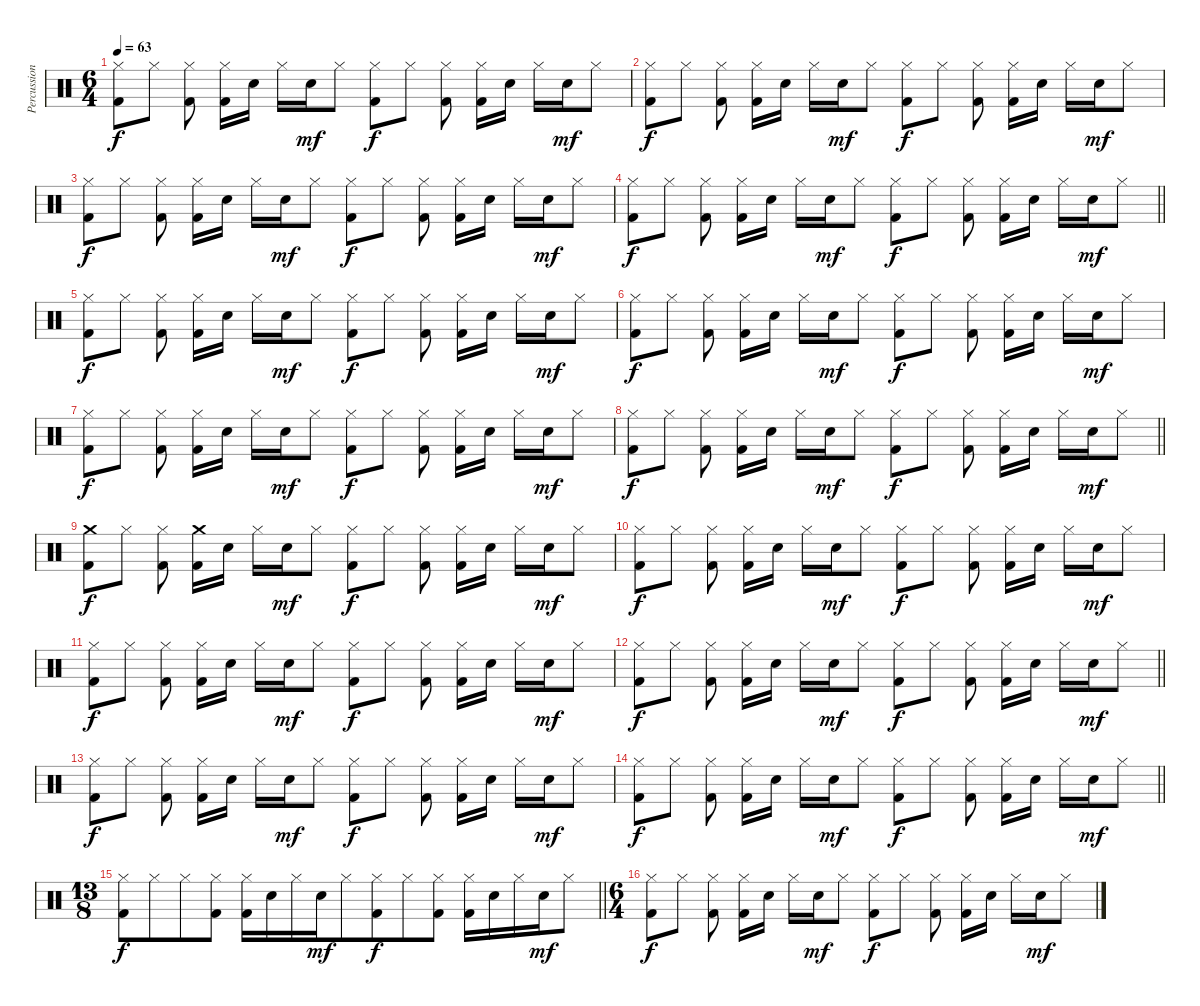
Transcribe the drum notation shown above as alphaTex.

\track ("Percussion" "Percussion") {instrument percussion}
\staff {score}
\articulation defaults
\ts (6 4)
\tempo 63
\clef neutral
\ks c
("Hi-Hat (closed)" "Kick (hit) 2").8{dy f} "Hi-Hat (closed)".8 ("Hi-Hat (closed)" "Kick (hit) 2").8{beam split} ("Hi-Hat (closed)" "Kick (hit) 2").16 "Electric Snare (hit)".16 "Hi-Hat (closed)".16 "Electric Snare (hit)".16{dy mf} "Hi-Hat (closed)".8 ("Hi-Hat (closed)" "Kick (hit) 2").8{dy f} "Hi-Hat (closed)".8 ("Hi-Hat (closed)" "Kick (hit) 2").8{beam split} ("Hi-Hat (closed)" "Kick (hit) 2").16 "Electric Snare (hit)".16 "Hi-Hat (closed)".16 "Electric Snare (hit)".16{dy mf} "Hi-Hat (closed)".8 |
("Hi-Hat (closed)" "Kick (hit) 2").8{dy f} "Hi-Hat (closed)".8 ("Hi-Hat (closed)" "Kick (hit) 2").8{beam split} ("Hi-Hat (closed)" "Kick (hit) 2").16 "Electric Snare (hit)".16 "Hi-Hat (closed)".16 "Electric Snare (hit)".16{dy mf} "Hi-Hat (closed)".8 ("Hi-Hat (closed)" "Kick (hit) 2").8{dy f} "Hi-Hat (closed)".8 ("Hi-Hat (closed)" "Kick (hit) 2").8{beam split} ("Hi-Hat (closed)" "Kick (hit) 2").16 "Electric Snare (hit)".16 "Hi-Hat (closed)".16 "Electric Snare (hit)".16{dy mf} "Hi-Hat (closed)".8 |
("Hi-Hat (closed)" "Kick (hit) 2").8{dy f} "Hi-Hat (closed)".8 ("Hi-Hat (closed)" "Kick (hit) 2").8{beam split} ("Hi-Hat (closed)" "Kick (hit) 2").16 "Electric Snare (hit)".16 "Hi-Hat (closed)".16 "Electric Snare (hit)".16{dy mf} "Hi-Hat (closed)".8 ("Hi-Hat (closed)" "Kick (hit) 2").8{dy f} "Hi-Hat (closed)".8 ("Hi-Hat (closed)" "Kick (hit) 2").8{beam split} ("Hi-Hat (closed)" "Kick (hit) 2").16 "Electric Snare (hit)".16 "Hi-Hat (closed)".16 "Electric Snare (hit)".16{dy mf} "Hi-Hat (closed)".8 |
\barLineRight lightlight
("Hi-Hat (closed)" "Kick (hit) 2").8{dy f} "Hi-Hat (closed)".8 ("Hi-Hat (closed)" "Kick (hit) 2").8{beam split} ("Hi-Hat (closed)" "Kick (hit) 2").16 "Electric Snare (hit)".16 "Hi-Hat (closed)".16 "Electric Snare (hit)".16{dy mf} "Hi-Hat (closed)".8 ("Hi-Hat (closed)" "Kick (hit) 2").8{dy f} "Hi-Hat (closed)".8 ("Hi-Hat (closed)" "Kick (hit) 2").8{beam split} ("Hi-Hat (closed)" "Kick (hit) 2").16 "Electric Snare (hit)".16 "Hi-Hat (closed)".16 "Electric Snare (hit)".16{dy mf} "Hi-Hat (closed)".8 |
("Hi-Hat (closed)" "Kick (hit) 2").8{dy f} "Hi-Hat (closed)".8 ("Hi-Hat (closed)" "Kick (hit) 2").8{beam split} ("Hi-Hat (closed)" "Kick (hit) 2").16 "Electric Snare (hit)".16 "Hi-Hat (closed)".16 "Electric Snare (hit)".16{dy mf} "Hi-Hat (closed)".8 ("Hi-Hat (closed)" "Kick (hit) 2").8{dy f} "Hi-Hat (closed)".8 ("Hi-Hat (closed)" "Kick (hit) 2").8{beam split} ("Hi-Hat (closed)" "Kick (hit) 2").16 "Electric Snare (hit)".16 "Hi-Hat (closed)".16 "Electric Snare (hit)".16{dy mf} "Hi-Hat (closed)".8 |
("Hi-Hat (closed)" "Kick (hit) 2").8{dy f} "Hi-Hat (closed)".8 ("Hi-Hat (closed)" "Kick (hit) 2").8{beam split} ("Hi-Hat (closed)" "Kick (hit) 2").16 "Electric Snare (hit)".16 "Hi-Hat (closed)".16 "Electric Snare (hit)".16{dy mf} "Hi-Hat (closed)".8 ("Hi-Hat (closed)" "Kick (hit) 2").8{dy f} "Hi-Hat (closed)".8 ("Hi-Hat (closed)" "Kick (hit) 2").8{beam split} ("Hi-Hat (closed)" "Kick (hit) 2").16 "Electric Snare (hit)".16 "Hi-Hat (closed)".16 "Electric Snare (hit)".16{dy mf} "Hi-Hat (closed)".8 |
("Hi-Hat (closed)" "Kick (hit) 2").8{dy f} "Hi-Hat (closed)".8 ("Hi-Hat (closed)" "Kick (hit) 2").8{beam split} ("Hi-Hat (closed)" "Kick (hit) 2").16 "Electric Snare (hit)".16 "Hi-Hat (closed)".16 "Electric Snare (hit)".16{dy mf} "Hi-Hat (closed)".8 ("Hi-Hat (closed)" "Kick (hit) 2").8{dy f} "Hi-Hat (closed)".8 ("Hi-Hat (closed)" "Kick (hit) 2").8{beam split} ("Hi-Hat (closed)" "Kick (hit) 2").16 "Electric Snare (hit)".16 "Hi-Hat (closed)".16 "Electric Snare (hit)".16{dy mf} "Hi-Hat (closed)".8 |
\barLineRight lightlight
("Hi-Hat (closed)" "Kick (hit) 2").8{dy f} "Hi-Hat (closed)".8 ("Hi-Hat (closed)" "Kick (hit) 2").8{beam split} ("Hi-Hat (closed)" "Kick (hit) 2").16 "Electric Snare (hit)".16 "Hi-Hat (closed)".16 "Electric Snare (hit)".16{dy mf} "Hi-Hat (closed)".8 ("Hi-Hat (closed)" "Kick (hit) 2").8{dy f} "Hi-Hat (closed)".8 ("Hi-Hat (closed)" "Kick (hit) 2").8{beam split} ("Hi-Hat (closed)" "Kick (hit) 2").16 "Electric Snare (hit)".16 "Hi-Hat (closed)".16 "Electric Snare (hit)".16{dy mf} "Hi-Hat (closed)".8 |
("Crash medium (hit)" "Kick (hit) 2").8{dy f} "Hi-Hat (closed)".8 ("Hi-Hat (closed)" "Kick (hit) 2").8{beam split} ("Crash medium (hit)" "Kick (hit) 2").16 "Electric Snare (hit)".16 "Hi-Hat (closed)".16 "Electric Snare (hit)".16{dy mf} "Hi-Hat (closed)".8 ("Hi-Hat (closed)" "Kick (hit) 2").8{dy f} "Hi-Hat (closed)".8 ("Hi-Hat (closed)" "Kick (hit) 2").8{beam split} ("Hi-Hat (closed)" "Kick (hit) 2").16 "Electric Snare (hit)".16 "Hi-Hat (closed)".16 "Electric Snare (hit)".16{dy mf} "Hi-Hat (closed)".8 |
("Hi-Hat (closed)" "Kick (hit) 2").8{dy f} "Hi-Hat (closed)".8 ("Hi-Hat (closed)" "Kick (hit) 2").8{beam split} ("Hi-Hat (closed)" "Kick (hit) 2").16 "Electric Snare (hit)".16 "Hi-Hat (closed)".16 "Electric Snare (hit)".16{dy mf} "Hi-Hat (closed)".8 ("Hi-Hat (closed)" "Kick (hit) 2").8{dy f} "Hi-Hat (closed)".8 ("Hi-Hat (closed)" "Kick (hit) 2").8{beam split} ("Hi-Hat (closed)" "Kick (hit) 2").16 "Electric Snare (hit)".16 "Hi-Hat (closed)".16 "Electric Snare (hit)".16{dy mf} "Hi-Hat (closed)".8 |
("Hi-Hat (closed)" "Kick (hit) 2").8{dy f} "Hi-Hat (closed)".8 ("Hi-Hat (closed)" "Kick (hit) 2").8{beam split} ("Hi-Hat (closed)" "Kick (hit) 2").16 "Electric Snare (hit)".16 "Hi-Hat (closed)".16 "Electric Snare (hit)".16{dy mf} "Hi-Hat (closed)".8 ("Hi-Hat (closed)" "Kick (hit) 2").8{dy f} "Hi-Hat (closed)".8 ("Hi-Hat (closed)" "Kick (hit) 2").8{beam split} ("Hi-Hat (closed)" "Kick (hit) 2").16 "Electric Snare (hit)".16 "Hi-Hat (closed)".16 "Electric Snare (hit)".16{dy mf} "Hi-Hat (closed)".8 |
\barLineRight lightlight
("Hi-Hat (closed)" "Kick (hit) 2").8{dy f} "Hi-Hat (closed)".8 ("Hi-Hat (closed)" "Kick (hit) 2").8{beam split} ("Hi-Hat (closed)" "Kick (hit) 2").16 "Electric Snare (hit)".16 "Hi-Hat (closed)".16 "Electric Snare (hit)".16{dy mf} "Hi-Hat (closed)".8 ("Hi-Hat (closed)" "Kick (hit) 2").8{dy f} "Hi-Hat (closed)".8 ("Hi-Hat (closed)" "Kick (hit) 2").8{beam split} ("Hi-Hat (closed)" "Kick (hit) 2").16 "Electric Snare (hit)".16 "Hi-Hat (closed)".16 "Electric Snare (hit)".16{dy mf} "Hi-Hat (closed)".8 |
("Hi-Hat (closed)" "Kick (hit) 2").8{dy f} "Hi-Hat (closed)".8 ("Hi-Hat (closed)" "Kick (hit) 2").8{beam split} ("Hi-Hat (closed)" "Kick (hit) 2").16 "Electric Snare (hit)".16 "Hi-Hat (closed)".16 "Electric Snare (hit)".16{dy mf} "Hi-Hat (closed)".8 ("Hi-Hat (closed)" "Kick (hit) 2").8{dy f} "Hi-Hat (closed)".8 ("Hi-Hat (closed)" "Kick (hit) 2").8{beam split} ("Hi-Hat (closed)" "Kick (hit) 2").16 "Electric Snare (hit)".16 "Hi-Hat (closed)".16 "Electric Snare (hit)".16{dy mf} "Hi-Hat (closed)".8 |
\barLineRight lightlight
("Hi-Hat (closed)" "Kick (hit) 2").8{dy f} "Hi-Hat (closed)".8 ("Hi-Hat (closed)" "Kick (hit) 2").8{beam split} ("Hi-Hat (closed)" "Kick (hit) 2").16 "Electric Snare (hit)".16 "Hi-Hat (closed)".16 "Electric Snare (hit)".16{dy mf} "Hi-Hat (closed)".8 ("Hi-Hat (closed)" "Kick (hit) 2").8{dy f} "Hi-Hat (closed)".8 ("Hi-Hat (closed)" "Kick (hit) 2").8{beam split} ("Hi-Hat (closed)" "Kick (hit) 2").16 "Electric Snare (hit)".16 "Hi-Hat (closed)".16 "Electric Snare (hit)".16{dy mf} "Hi-Hat (closed)".8 |
\ts (13 8)
\barLineRight lightlight
("Hi-Hat (closed)" "Kick (hit) 2").8{dy f beam merge} "Hi-Hat (closed)".8{beam merge} "Hi-Hat (closed)".8{beam merge} ("Hi-Hat (closed)" "Kick (hit) 2").8{beam split} ("Hi-Hat (closed)" "Kick (hit) 2").16 "Electric Snare (hit)".16{beam merge} "Hi-Hat (closed)".16 "Electric Snare (hit)".16{dy mf beam merge} "Hi-Hat (closed)".8 ("Hi-Hat (closed)" "Kick (hit) 2").8{dy f beam merge} "Hi-Hat (closed)".8{beam merge} ("Hi-Hat (closed)" "Kick (hit) 2").8{beam split} ("Hi-Hat (closed)" "Kick (hit) 2").16 "Electric Snare (hit)".16{beam merge} "Hi-Hat (closed)".16 "Electric Snare (hit)".16{dy mf beam merge} "Hi-Hat (closed)".8 |
\ts (6 4)
("Hi-Hat (closed)" "Kick (hit) 2").8{dy f} "Hi-Hat (closed)".8 ("Hi-Hat (closed)" "Kick (hit) 2").8{beam split} ("Hi-Hat (closed)" "Kick (hit) 2").16 "Electric Snare (hit)".16 "Hi-Hat (closed)".16 "Electric Snare (hit)".16{dy mf} "Hi-Hat (closed)".8 ("Hi-Hat (closed)" "Kick (hit) 2").8{dy f} "Hi-Hat (closed)".8 ("Hi-Hat (closed)" "Kick (hit) 2").8{beam split} ("Hi-Hat (closed)" "Kick (hit) 2").16 "Electric Snare (hit)".16 "Hi-Hat (closed)".16 "Electric Snare (hit)".16{dy mf} "Hi-Hat (closed)".8
